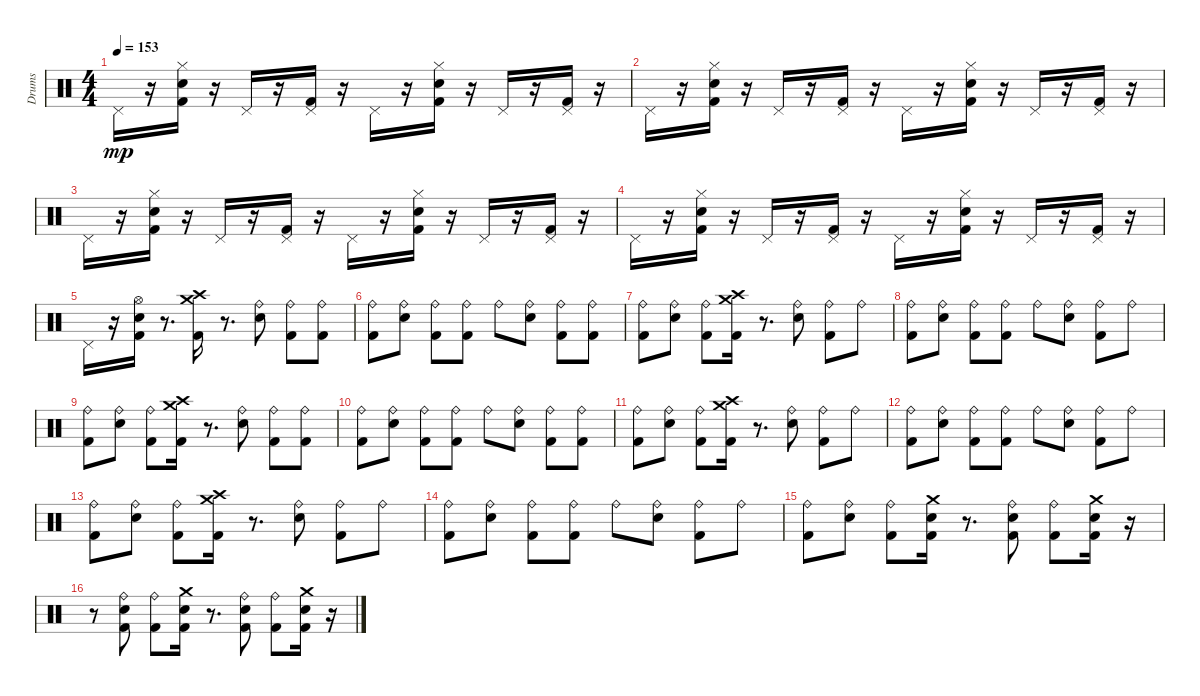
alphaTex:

\track ("Drums" "Drums") {instrument percussion}
\staff {score}
\articulation defaults
\ts (4 4)
\tempo 153
\clef neutral
\ks c "Pedal Hi-Hat (hit)".16{dy mp}
r.16 ("Hi-Hat (closed)" "Kick (hit) 2" "Electric Snare (hit)").16 r.16 "Pedal Hi-Hat (hit)".16 r.16 ("Pedal Hi-Hat (hit)" "Kick (hit) 2").16 r.16 "Pedal Hi-Hat (hit)".16 r.16 ("Hi-Hat (closed)" "Electric Snare (hit)" "Kick (hit) 2").16 r.16 "Pedal Hi-Hat (hit)".16 r.16 ("Pedal Hi-Hat (hit)" "Kick (hit) 2").16 r.16 |
"Pedal Hi-Hat (hit)".16 r.16 ("Hi-Hat (closed)" "Electric Snare (hit)" "Kick (hit) 2").16 r.16 "Pedal Hi-Hat (hit)".16 r.16 ("Pedal Hi-Hat (hit)" "Kick (hit) 2").16 r.16 "Pedal Hi-Hat (hit)".16 r.16 ("Hi-Hat (closed)" "Electric Snare (hit)" "Kick (hit) 2").16 r.16 "Pedal Hi-Hat (hit)".16 r.16 ("Pedal Hi-Hat (hit)" "Kick (hit) 2").16 r.16 |
"Pedal Hi-Hat (hit)".16 r.16 ("Hi-Hat (closed)" "Electric Snare (hit)" "Kick (hit) 2").16 r.16 "Pedal Hi-Hat (hit)".16 r.16 ("Pedal Hi-Hat (hit)" "Kick (hit) 2").16 r.16 "Pedal Hi-Hat (hit)".16 r.16 ("Hi-Hat (closed)" "Electric Snare (hit)" "Kick (hit) 2").16 r.16 "Pedal Hi-Hat (hit)".16 r.16 ("Pedal Hi-Hat (hit)" "Kick (hit) 2").16 r.16 |
"Pedal Hi-Hat (hit)".16 r.16 ("Hi-Hat (closed)" "Kick (hit) 2" "Electric Snare (hit)").16 r.16 "Pedal Hi-Hat (hit)".16 r.16 ("Kick (hit) 2" "Pedal Hi-Hat (hit)").16 r.16 "Pedal Hi-Hat (hit)".16 r.16 ("Hi-Hat (closed)" "Electric Snare (hit)" "Kick (hit) 2").16 r.16 "Pedal Hi-Hat (hit)".16 r.16 ("Kick (hit) 2" "Pedal Hi-Hat (hit)").16 r.16 |
"Pedal Hi-Hat (hit)".16 r.16 ("Hi-Hat (open)" "Kick (hit) 2" "Electric Snare (hit)").16 r.8{d} ("Crash medium (hit)" "Kick (hit) 2" "Crash high (hit)").16 r.8{d} ("Electric Snare (hit)" "Ride (bell)").8 ("Kick (hit) 2" "Ride (bell)").8 ("Kick (hit) 2" "Ride (bell)").8 |
("Kick (hit) 2" "Ride (bell)").8 ("Electric Snare (hit)" "Ride (bell)").8 ("Kick (hit) 2" "Ride (bell)").8 ("Kick (hit) 2" "Ride (bell)").8 "Ride (bell)".8 ("Electric Snare (hit)" "Ride (bell)").8 ("Kick (hit) 2" "Ride (bell)").8 ("Kick (hit) 2" "Ride (bell)").8 |
("Kick (hit) 2" "Ride (bell)").8 ("Electric Snare (hit)" "Ride (bell)").8 ("Kick (hit) 2" "Ride (bell)").8 ("Crash medium (hit)" "Crash high (hit)" "Kick (hit) 2").16 r.8{d} ("Electric Snare (hit)" "Ride (bell)").8 ("Kick (hit) 2" "Ride (bell)").8 "Ride (bell)".8 |
("Kick (hit) 2" "Ride (bell)").8 ("Electric Snare (hit)" "Ride (bell)").8 ("Kick (hit) 2" "Ride (bell)").8 ("Kick (hit) 2" "Ride (bell)").8 "Ride (bell)".8 ("Electric Snare (hit)" "Ride (bell)").8 ("Kick (hit) 2" "Ride (bell)").8 "Ride (bell)".8 |
("Kick (hit) 2" "Ride (bell)").8 ("Electric Snare (hit)" "Ride (bell)").8 ("Kick (hit) 2" "Ride (bell)").8 ("Crash high (hit)" "Crash medium (hit)" "Kick (hit) 2").16 r.8{d} ("Electric Snare (hit)" "Ride (bell)").8 ("Kick (hit) 2" "Ride (bell)").8 ("Kick (hit) 2" "Ride (bell)").8 |
("Kick (hit) 2" "Ride (bell)").8 ("Electric Snare (hit)" "Ride (bell)").8 ("Kick (hit) 2" "Ride (bell)").8 ("Kick (hit) 2" "Ride (bell)").8 "Ride (bell)".8 ("Electric Snare (hit)" "Ride (bell)").8 ("Kick (hit) 2" "Ride (bell)").8 ("Kick (hit) 2" "Ride (bell)").8 |
("Kick (hit) 2" "Ride (bell)").8 ("Electric Snare (hit)" "Ride (bell)").8 ("Kick (hit) 2" "Ride (bell)").8 ("Crash medium (hit)" "Crash high (hit)" "Kick (hit) 2").16 r.8{d} ("Electric Snare (hit)" "Ride (bell)").8 ("Kick (hit) 2" "Ride (bell)").8 "Ride (bell)".8 |
("Kick (hit) 2" "Ride (bell)").8 ("Electric Snare (hit)" "Ride (bell)").8 ("Kick (hit) 2" "Ride (bell)").8 ("Kick (hit) 2" "Ride (bell)").8 "Ride (bell)".8 ("Electric Snare (hit)" "Ride (bell)").8 ("Kick (hit) 2" "Ride (bell)").8 "Ride (bell)".8 |
("Kick (hit) 2" "Ride (bell)").8 ("Electric Snare (hit)" "Ride (bell)").8 ("Kick (hit) 2" "Ride (bell)").8 ("Crash medium (hit)" "Crash high (hit)" "Kick (hit) 2").16 r.8{d} ("Electric Snare (hit)" "Ride (bell)").8 ("Kick (hit) 2" "Ride (bell)").8 "Ride (bell)".8 |
("Kick (hit) 2" "Ride (bell)").8 ("Electric Snare (hit)" "Ride (bell)").8 ("Kick (hit) 2" "Ride (bell)").8 ("Kick (hit) 2" "Ride (bell)").8 "Ride (bell)".8 ("Electric Snare (hit)" "Ride (bell)").8 ("Kick (hit) 2" "Ride (bell)").8 "Ride (bell)".8 |
("Kick (hit) 2" "Ride (bell)").8 ("Electric Snare (hit)" "Ride (bell)").8 ("Kick (hit) 2" "Ride (bell)").8 ("Kick (hit) 2" "Crash medium (hit)" "Electric Snare (hit)").16 r.8{d} ("Kick (hit) 2" "Electric Snare (hit)" "Ride (bell)").8 ("Kick (hit) 2" "Ride (bell)").8 ("Electric Snare (hit)" "Crash medium (hit)" "Kick (hit) 2").16 r.16 |
r.8 ("Kick (hit) 2" "Electric Snare (hit)" "Ride (bell)").8 ("Kick (hit) 2" "Ride (bell)").8 ("Electric Snare (hit)" "Crash medium (hit)" "Kick (hit) 2").16 r.8{d} ("Electric Snare (hit)" "Kick (hit) 2" "Ride (bell)").8 ("Kick (hit) 2" "Ride (bell)").8 ("Electric Snare (hit)" "Crash medium (hit)" "Kick (hit) 2").16 r.16
